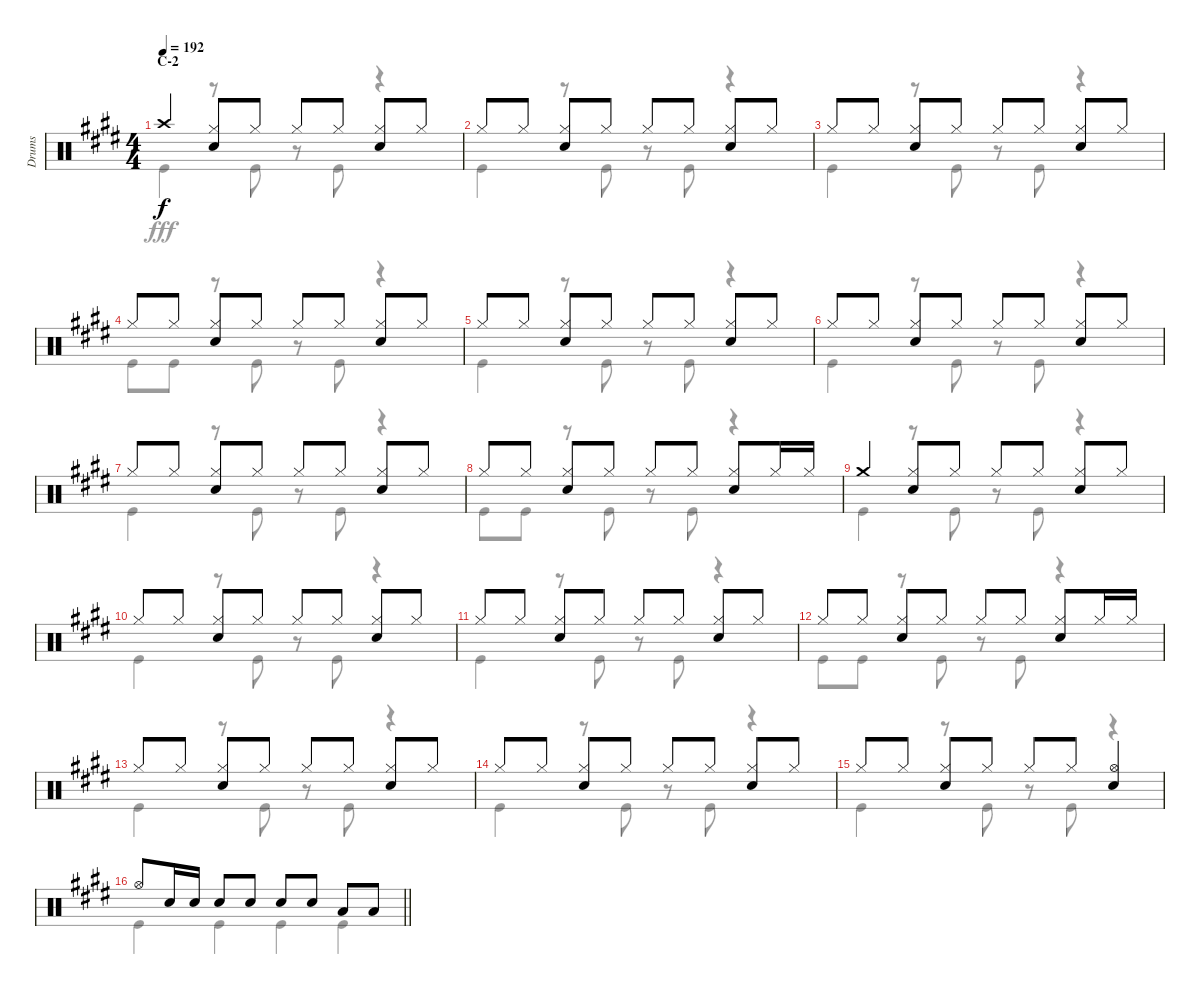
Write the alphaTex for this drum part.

\track ("Drums" "Drums") {instrument percussion}
\staff {score}
\articulation defaults
\voice
\ts (4 4)
\section ("" "C-2")
\tempo 192
\clef neutral
\ks e "Crash high (hit)".4{dy f}
("Hi-Hat (closed)" "Snare (hit) 2").8 "Hi-Hat (closed)".8 "Hi-Hat (closed)".8 "Hi-Hat (closed)".8 ("Hi-Hat (closed)" "Snare (hit) 2").8 "Hi-Hat (closed)".8 |
"Hi-Hat (closed)".8 "Hi-Hat (closed)".8 ("Hi-Hat (closed)" "Snare (hit) 2").8 "Hi-Hat (closed)".8 "Hi-Hat (closed)".8 "Hi-Hat (closed)".8 ("Hi-Hat (closed)" "Snare (hit) 2").8 "Hi-Hat (closed)".8 |
"Hi-Hat (closed)".8 "Hi-Hat (closed)".8 ("Hi-Hat (closed)" "Snare (hit) 2").8 "Hi-Hat (closed)".8 "Hi-Hat (closed)".8 "Hi-Hat (closed)".8 ("Hi-Hat (closed)" "Snare (hit) 2").8 "Hi-Hat (closed)".8 |
"Hi-Hat (closed)".8 "Hi-Hat (closed)".8 ("Hi-Hat (closed)" "Snare (hit) 2").8 "Hi-Hat (closed)".8 "Hi-Hat (closed)".8 "Hi-Hat (closed)".8 ("Hi-Hat (closed)" "Snare (hit) 2").8 "Hi-Hat (closed)".8 |
"Hi-Hat (closed)".8 "Hi-Hat (closed)".8 ("Hi-Hat (closed)" "Snare (hit) 2").8 "Hi-Hat (closed)".8 "Hi-Hat (closed)".8 "Hi-Hat (closed)".8 ("Hi-Hat (closed)" "Snare (hit) 2").8 "Hi-Hat (closed)".8 |
"Hi-Hat (closed)".8 "Hi-Hat (closed)".8 ("Hi-Hat (closed)" "Snare (hit) 2").8 "Hi-Hat (closed)".8 "Hi-Hat (closed)".8 "Hi-Hat (closed)".8 ("Hi-Hat (closed)" "Snare (hit) 2").8 "Hi-Hat (closed)".8 |
"Hi-Hat (closed)".8 "Hi-Hat (closed)".8 ("Hi-Hat (closed)" "Snare (hit) 2").8 "Hi-Hat (closed)".8 "Hi-Hat (closed)".8 "Hi-Hat (closed)".8 ("Hi-Hat (closed)" "Snare (hit) 2").8 "Hi-Hat (closed)".8 |
"Hi-Hat (closed)".8 "Hi-Hat (closed)".8 ("Hi-Hat (closed)" "Snare (hit) 2").8 "Hi-Hat (closed)".8 "Hi-Hat (closed)".8 "Hi-Hat (closed)".8 ("Hi-Hat (closed)" "Snare (hit) 2").8 "Hi-Hat (closed)".16 "Hi-Hat (closed)".16 |
"Crash medium (hit)".4 ("Hi-Hat (closed)" "Snare (hit) 2").8 "Hi-Hat (closed)".8 "Hi-Hat (closed)".8 "Hi-Hat (closed)".8 ("Hi-Hat (closed)" "Snare (hit) 2").8 "Hi-Hat (closed)".8 |
"Hi-Hat (closed)".8 "Hi-Hat (closed)".8 ("Hi-Hat (closed)" "Snare (hit) 2").8 "Hi-Hat (closed)".8 "Hi-Hat (closed)".8 "Hi-Hat (closed)".8 ("Hi-Hat (closed)" "Snare (hit) 2").8 "Hi-Hat (closed)".8 |
"Hi-Hat (closed)".8 "Hi-Hat (closed)".8 ("Hi-Hat (closed)" "Snare (hit) 2").8 "Hi-Hat (closed)".8 "Hi-Hat (closed)".8 "Hi-Hat (closed)".8 ("Hi-Hat (closed)" "Snare (hit) 2").8 "Hi-Hat (closed)".8 |
"Hi-Hat (closed)".8 "Hi-Hat (closed)".8 ("Hi-Hat (closed)" "Snare (hit) 2").8 "Hi-Hat (closed)".8 "Hi-Hat (closed)".8 "Hi-Hat (closed)".8 ("Hi-Hat (closed)" "Snare (hit) 2").8 "Hi-Hat (closed)".16 "Hi-Hat (closed)".16 |
"Hi-Hat (closed)".8 "Hi-Hat (closed)".8 ("Hi-Hat (closed)" "Snare (hit) 2").8 "Hi-Hat (closed)".8 "Hi-Hat (closed)".8 "Hi-Hat (closed)".8 ("Hi-Hat (closed)" "Snare (hit) 2").8 "Hi-Hat (closed)".8 |
"Hi-Hat (closed)".8 "Hi-Hat (closed)".8 ("Hi-Hat (closed)" "Snare (hit) 2").8 "Hi-Hat (closed)".8 "Hi-Hat (closed)".8 "Hi-Hat (closed)".8 ("Hi-Hat (closed)" "Snare (hit) 2").8 "Hi-Hat (closed)".8 |
"Hi-Hat (closed)".8 "Hi-Hat (closed)".8 ("Hi-Hat (closed)" "Snare (hit) 2").8 "Hi-Hat (closed)".8 "Hi-Hat (closed)".8 "Hi-Hat (closed)".8 ("Hi-Hat (open)" "Snare (hit) 2").4 |
\barLineRight lightlight "Hi-Hat (open)".8 "Snare (hit) 2".16 "Snare (hit) 2".16 "Snare (hit) 2".8 "Snare (hit) 2".8 "Snare (hit) 2".8 "Snare (hit) 2".8 "Low Tom (hit)".8 "Low Tom (hit)".8
\voice
\clef neutral
\ottava regular
\simile none
\ks e "Kick (hit)".4{dy fff}
r.8 "Kick (hit)".8 r.8 "Kick (hit)".8 r.4 |
"Kick (hit)".4 r.8 "Kick (hit)".8 r.8 "Kick (hit)".8 r.4 |
"Kick (hit)".4 r.8 "Kick (hit)".8 r.8 "Kick (hit)".8 r.4 |
"Kick (hit)".8 "Kick (hit)".8 r.8 "Kick (hit)".8 r.8 "Kick (hit)".8 r.4 |
"Kick (hit)".4 r.8 "Kick (hit)".8 r.8 "Kick (hit)".8 r.4 |
"Kick (hit)".4 r.8 "Kick (hit)".8 r.8 "Kick (hit)".8 r.4 |
"Kick (hit)".4 r.8 "Kick (hit)".8 r.8 "Kick (hit)".8 r.4 |
"Kick (hit)".8 "Kick (hit)".8 r.8 "Kick (hit)".8 r.8 "Kick (hit)".8 r.4 |
"Kick (hit)".4 r.8 "Kick (hit)".8 r.8 "Kick (hit)".8 r.4 |
"Kick (hit)".4 r.8 "Kick (hit)".8 r.8 "Kick (hit)".8 r.4 |
"Kick (hit)".4 r.8 "Kick (hit)".8 r.8 "Kick (hit)".8 r.4 |
"Kick (hit)".8 "Kick (hit)".8 r.8 "Kick (hit)".8 r.8 "Kick (hit)".8 r.4 |
"Kick (hit)".4 r.8 "Kick (hit)".8 r.8 "Kick (hit)".8 r.4 |
"Kick (hit)".4 r.8 "Kick (hit)".8 r.8 "Kick (hit)".8 r.4 |
"Kick (hit)".4 r.8 "Kick (hit)".8 r.8 "Kick (hit)".8 r.4 |
\barLineRight lightlight "Kick (hit)".4 "Kick (hit)".4 "Kick (hit)".4 "Kick (hit)".4
